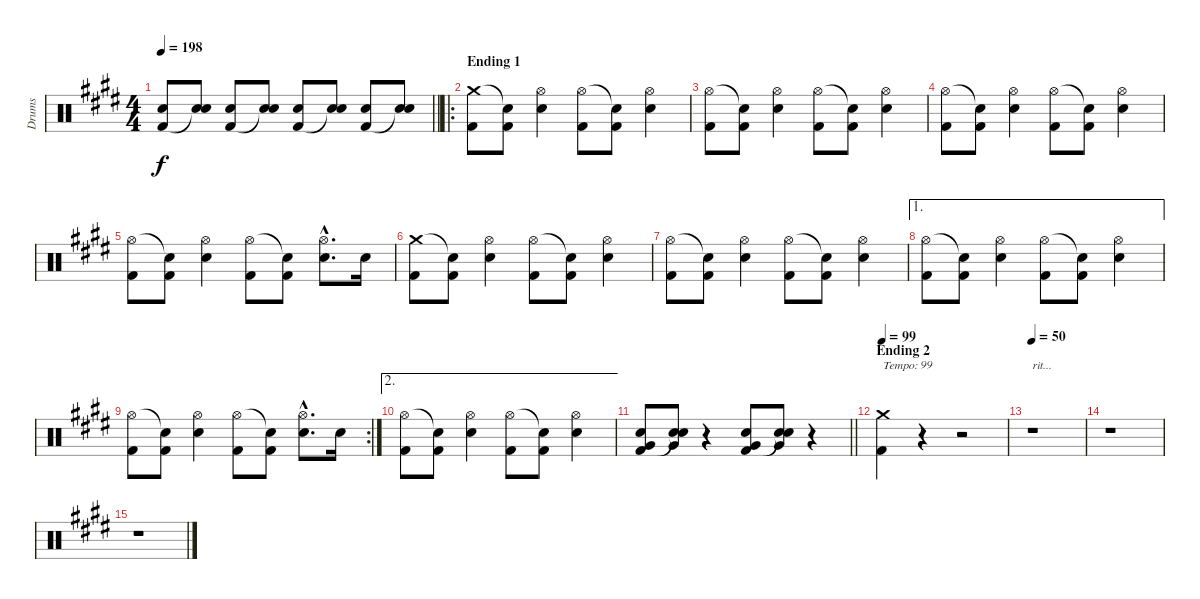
\track ("Drums" "Drums") {instrument percussion}
\staff {score}
\articulation defaults
\ts (4 4)
\tempo 198
\clef neutral
\barLineRight lightlight
\ks c#minor
("Electric Snare (hit)" "Kick (hit) 2").8{dy f} ("Electric Snare (hit)" "Snare (hit)"{t}).8 ("Electric Snare (hit)" "Kick (hit) 2").8 ("Electric Snare (hit)" "Snare (hit)"{t}).8 ("Electric Snare (hit)" "Kick (hit) 2").8 ("Electric Snare (hit)" "Snare (hit)"{t}).8 ("Electric Snare (hit)" "Kick (hit) 2").8 ("Electric Snare (hit)" "Snare (hit)"{t}).8 |
\ro
\section ("" "Ending 1")
("Crash medium (hit)" "Kick (hit) 2").8 ("Snare (hit)"{t} "Kick (hit) 2").8 ("Hi-Hat (open)" "Electric Snare (hit)").4 ("Hi-Hat (open)" "Kick (hit) 2").8 ("Snare (hit)"{t} "Kick (hit) 2").8 ("Hi-Hat (open)" "Electric Snare (hit)").4 |
("Hi-Hat (open)" "Kick (hit) 2").8 ("Snare (hit)"{t} "Kick (hit) 2").8 ("Hi-Hat (open)" "Electric Snare (hit)").4 ("Hi-Hat (open)" "Kick (hit) 2").8 ("Snare (hit)"{t} "Kick (hit) 2").8 ("Hi-Hat (open)" "Electric Snare (hit)").4 |
("Hi-Hat (open)" "Kick (hit) 2").8 ("Snare (hit)"{t} "Kick (hit) 2").8 ("Hi-Hat (open)" "Electric Snare (hit)").4 ("Hi-Hat (open)" "Kick (hit) 2").8 ("Snare (hit)"{t} "Kick (hit) 2").8 ("Hi-Hat (open)" "Electric Snare (hit)").4 |
("Hi-Hat (open)" "Kick (hit) 2").8 ("Snare (hit)"{t} "Kick (hit) 2").8 ("Hi-Hat (open)" "Electric Snare (hit)").4 ("Hi-Hat (open)" "Kick (hit) 2").8 ("Snare (hit)"{t} "Kick (hit) 2").8 ("Hi-Hat (open)"{hac} "Electric Snare (hit)"{hac}).8{d} "Electric Snare (hit)".16 |
("Crash medium (hit)" "Kick (hit) 2").8 ("Snare (hit)"{t} "Kick (hit) 2").8 ("Hi-Hat (open)" "Electric Snare (hit)").4 ("Hi-Hat (open)" "Kick (hit) 2").8 ("Snare (hit)"{t} "Kick (hit) 2").8 ("Hi-Hat (open)" "Electric Snare (hit)").4 |
("Hi-Hat (open)" "Kick (hit) 2").8 ("Snare (hit)"{t} "Kick (hit) 2").8 ("Hi-Hat (open)" "Electric Snare (hit)").4 ("Hi-Hat (open)" "Kick (hit) 2").8 ("Snare (hit)"{t} "Kick (hit) 2").8 ("Hi-Hat (open)" "Electric Snare (hit)").4 |
\ae 1
("Hi-Hat (open)" "Kick (hit) 2").8 ("Snare (hit)"{t} "Kick (hit) 2").8 ("Hi-Hat (open)" "Electric Snare (hit)").4 ("Hi-Hat (open)" "Kick (hit) 2").8 ("Snare (hit)"{t} "Kick (hit) 2").8 ("Hi-Hat (open)" "Electric Snare (hit)").4 |
\rc 2
("Hi-Hat (open)" "Kick (hit) 2").8 ("Snare (hit)"{t} "Kick (hit) 2").8 ("Hi-Hat (open)" "Electric Snare (hit)").4 ("Hi-Hat (open)" "Kick (hit) 2").8 ("Snare (hit)"{t} "Kick (hit) 2").8 ("Hi-Hat (open)"{hac} "Electric Snare (hit)"{hac}).8{d} "Electric Snare (hit)".16 |
\ae 2
("Hi-Hat (open)" "Kick (hit) 2").8 ("Snare (hit)"{t} "Kick (hit) 2").8 ("Hi-Hat (open)" "Electric Snare (hit)").4 ("Hi-Hat (open)" "Kick (hit) 2").8 ("Snare (hit)"{t} "Kick (hit) 2").8 ("Hi-Hat (open)" "Electric Snare (hit)").4 |
\barLineRight lightlight
("Electric Snare (hit)" "Very Low Tom (hit)" "Kick (hit) 2").8 ("Electric Snare (hit)" "Very Low Tom (hit)" "Snare (hit)"{t}).8 r.4 ("Electric Snare (hit)" "Very Low Tom (hit)" "Kick (hit) 2").8 ("Electric Snare (hit)" "Very Low Tom (hit)" "Snare (hit)"{t}).8 r.4 |
\section ("" "Ending 2")
\tempo 99
("Crash medium (hit)" "Kick (hit) 2").4{txt "Tempo: 99"} r.4 r.2 |
\tempo 50
r.1{txt "rit..."} |
r.1 |
r.1
